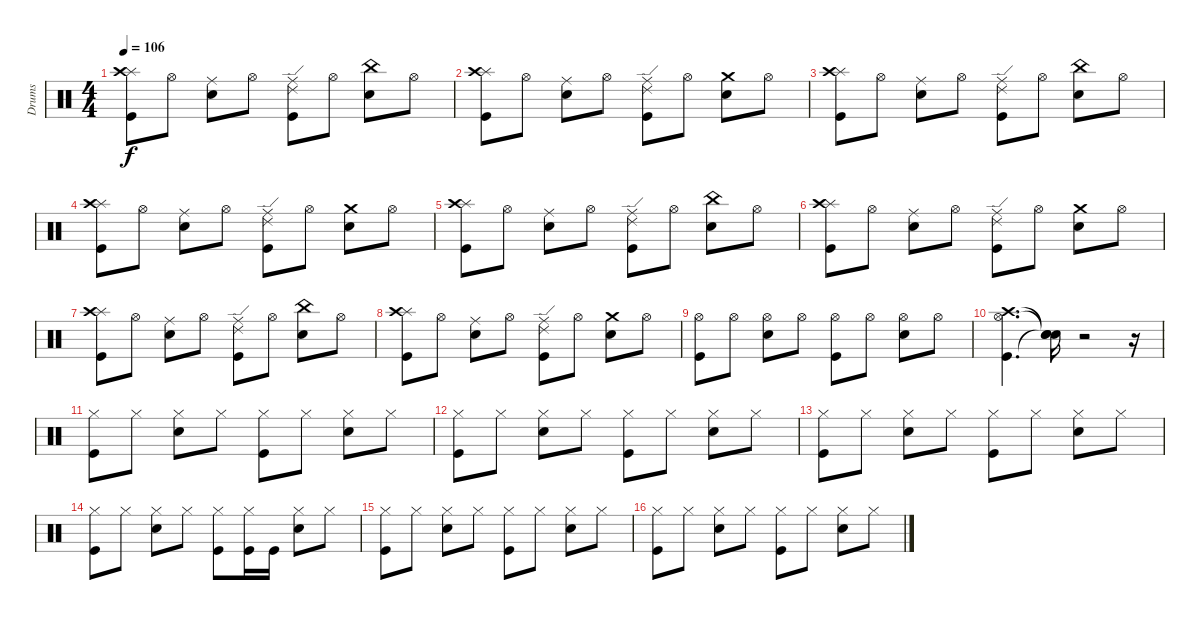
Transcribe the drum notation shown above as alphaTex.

\track ("Drums" "Drums") {instrument percussion}
\staff {score}
\articulation defaults
\ts (4 4)
\tempo 106
\clef neutral
\ks c
("Kick (hit)" "Splash (hit)" "Crash high (hit)").8{dy f volume 12} "Hi-Hat (open)".8 ("Snare (hit) 2" "Ride (middle)").8 "Hi-Hat (open)".8 ("Kick (hit)" "Ride (middle)" "Ride (edge) 2").8 "Hi-Hat (open)".8 ("Snare (hit) 2" "China (hit)").8 "Hi-Hat (open)".8 |
("Kick (hit)" "Splash (hit)" "Crash high (hit)").8{volume 12} "Hi-Hat (open)".8 ("Snare (hit) 2" "Ride (middle)").8 "Hi-Hat (open)".8 ("Kick (hit)" "Ride (middle)" "Ride (edge) 2").8 "Hi-Hat (open)".8 ("Snare (hit) 2" "Crash medium (hit)").8 "Hi-Hat (open)".8 |
("Kick (hit)" "Splash (hit)" "Crash high (hit)").8{volume 12} "Hi-Hat (open)".8 ("Snare (hit) 2" "Ride (middle)").8 "Hi-Hat (open)".8 ("Kick (hit)" "Ride (middle)" "Ride (edge) 2").8 "Hi-Hat (open)".8 ("Snare (hit) 2" "China (hit)").8 "Hi-Hat (open)".8 |
("Kick (hit)" "Splash (hit)" "Crash high (hit)").8{volume 12} "Hi-Hat (open)".8 ("Snare (hit) 2" "Ride (middle)").8 "Hi-Hat (open)".8 ("Kick (hit)" "Ride (middle)" "Ride (edge) 2").8 "Hi-Hat (open)".8 ("Snare (hit) 2" "Crash medium (hit)").8 "Hi-Hat (open)".8 |
("Kick (hit)" "Splash (hit)" "Crash high (hit)").8{volume 12} "Hi-Hat (open)".8 ("Snare (hit) 2" "Ride (middle)").8 "Hi-Hat (open)".8 ("Kick (hit)" "Ride (middle)" "Ride (edge) 2").8 "Hi-Hat (open)".8 ("Snare (hit) 2" "China (hit)").8 "Hi-Hat (open)".8 |
("Kick (hit)" "Splash (hit)" "Crash high (hit)").8{volume 12} "Hi-Hat (open)".8 ("Snare (hit) 2" "Ride (middle)").8 "Hi-Hat (open)".8 ("Kick (hit)" "Ride (middle)" "Ride (edge) 2").8 "Hi-Hat (open)".8 ("Snare (hit) 2" "Crash medium (hit)").8 "Hi-Hat (open)".8 |
("Kick (hit)" "Splash (hit)" "Crash high (hit)").8{volume 12} "Hi-Hat (open)".8 ("Snare (hit) 2" "Ride (middle)").8 "Hi-Hat (open)".8 ("Kick (hit)" "Ride (middle)" "Ride (edge) 2").8 "Hi-Hat (open)".8 ("Snare (hit) 2" "China (hit)").8 "Hi-Hat (open)".8 |
("Kick (hit)" "Splash (hit)" "Crash high (hit)").8{volume 12} "Hi-Hat (open)".8 ("Snare (hit) 2" "Ride (middle)").8 "Hi-Hat (open)".8 ("Kick (hit)" "Ride (middle)" "Ride (edge) 2").8 "Hi-Hat (open)".8 ("Snare (hit) 2" "Crash medium (hit)").8 "Hi-Hat (open)".8 |
("Kick (hit)" "Hi-Hat (open)").8{volume 12} "Hi-Hat (open)".8 ("Snare (hit) 2" "Hi-Hat (open)").8 "Hi-Hat (open)".8 ("Kick (hit)" "Hi-Hat (open)").8 "Hi-Hat (open)".8 ("Snare (hit) 2" "Hi-Hat (open)").8 "Hi-Hat (open)".8 |
("Kick (hit)" "Hi-Hat (open)" "Crash high (hit)").4{d} ("Snare (hit)"{t} "Snare (hit)"{t} "Snare (hit)"{t}).16 r.2 r.16 |
("Kick (hit)" "Hi-Hat (closed)").8{volume 12} "Hi-Hat (closed)".8 ("Snare (hit) 2" "Hi-Hat (closed)").8 "Hi-Hat (closed)".8 ("Kick (hit)" "Hi-Hat (closed)").8 "Hi-Hat (closed)".8 ("Snare (hit) 2" "Hi-Hat (closed)").8 "Hi-Hat (closed)".8 |
("Kick (hit)" "Hi-Hat (closed)").8{volume 12} "Hi-Hat (closed)".8 ("Snare (hit) 2" "Hi-Hat (closed)").8 "Hi-Hat (closed)".8 ("Kick (hit)" "Hi-Hat (closed)").8 "Hi-Hat (closed)".8 ("Snare (hit) 2" "Hi-Hat (closed)").8 "Hi-Hat (closed)".8 |
("Kick (hit)" "Hi-Hat (closed)").8{volume 12} "Hi-Hat (closed)".8 ("Snare (hit) 2" "Hi-Hat (closed)").8 "Hi-Hat (closed)".8 ("Kick (hit)" "Hi-Hat (closed)").8 "Hi-Hat (closed)".8 ("Snare (hit) 2" "Hi-Hat (closed)").8 "Hi-Hat (closed)".8 |
("Kick (hit)" "Hi-Hat (closed)").8{volume 12} "Hi-Hat (closed)".8 ("Snare (hit) 2" "Hi-Hat (closed)").8 "Hi-Hat (closed)".8 ("Kick (hit)" "Hi-Hat (closed)").8 ("Kick (hit)" "Hi-Hat (closed)").16 "Kick (hit)".16 ("Snare (hit) 2" "Hi-Hat (closed)").8 "Hi-Hat (closed)".8 |
("Kick (hit)" "Hi-Hat (closed)").8{volume 12} "Hi-Hat (closed)".8 ("Snare (hit) 2" "Hi-Hat (closed)").8 "Hi-Hat (closed)".8 ("Kick (hit)" "Hi-Hat (closed)").8 "Hi-Hat (closed)".8 ("Snare (hit) 2" "Hi-Hat (closed)").8 "Hi-Hat (closed)".8 |
("Kick (hit)" "Hi-Hat (closed)").8{volume 12} "Hi-Hat (closed)".8 ("Snare (hit) 2" "Hi-Hat (closed)").8 "Hi-Hat (closed)".8 ("Kick (hit)" "Hi-Hat (closed)").8 "Hi-Hat (closed)".8 ("Snare (hit) 2" "Hi-Hat (closed)").8 "Hi-Hat (closed)".8
